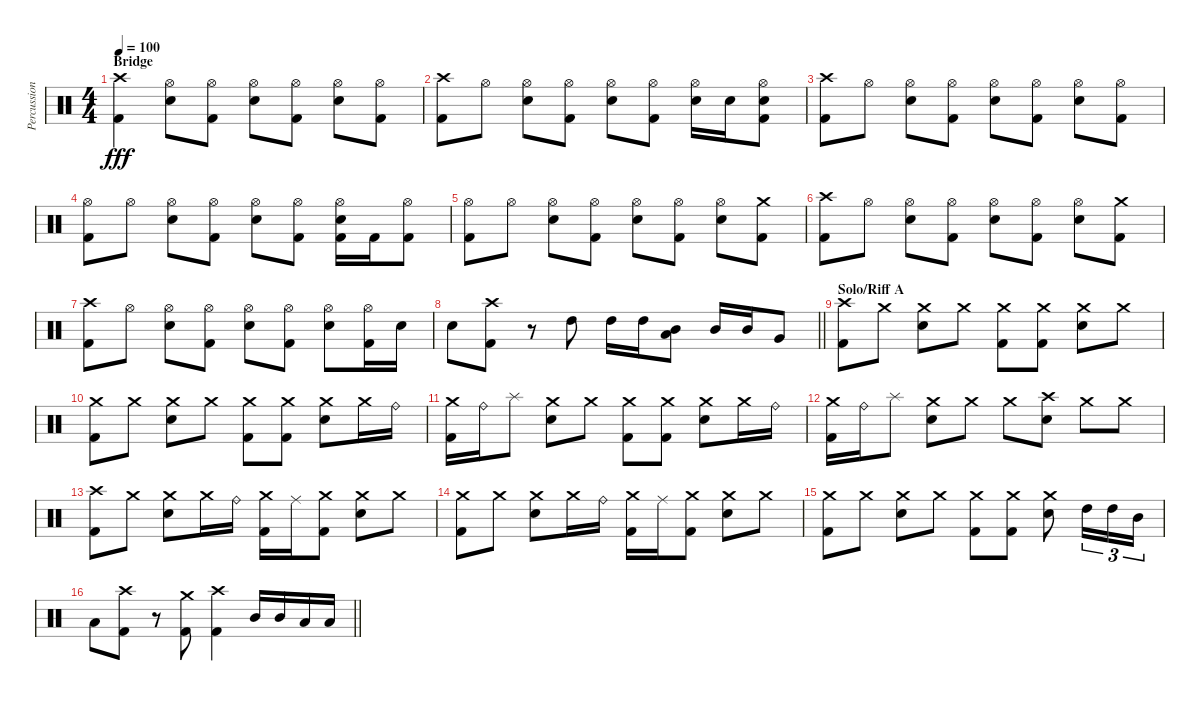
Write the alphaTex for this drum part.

\track ("Percussion" "Percussion") {instrument percussion}
\staff {score}
\articulation defaults
\ts (4 4)
\section ("" "Bridge")
\tempo 100
\clef neutral
\ks c
("Crash high (hit)" "Kick (hit) 2").4{dy fff} ("Hi-Hat (open)" "Electric Snare (hit)").8 ("Hi-Hat (open)" "Kick (hit) 2").8 ("Hi-Hat (open)" "Electric Snare (hit)").8 ("Hi-Hat (open)" "Kick (hit) 2").8 ("Hi-Hat (open)" "Electric Snare (hit)").8 ("Hi-Hat (open)" "Kick (hit) 2").8 |
("Crash high (hit)" "Kick (hit) 2").8 "Hi-Hat (open)".8 ("Hi-Hat (open)" "Electric Snare (hit)").8 ("Hi-Hat (open)" "Kick (hit) 2").8 ("Hi-Hat (open)" "Electric Snare (hit)").8 ("Hi-Hat (open)" "Kick (hit) 2").8 ("Hi-Hat (open)" "Electric Snare (hit)").16 "Electric Snare (hit)".16 ("Hi-Hat (open)" "Electric Snare (hit)" "Kick (hit) 2").8 |
("Crash high (hit)" "Kick (hit) 2").8 "Hi-Hat (open)".8 ("Hi-Hat (open)" "Electric Snare (hit)").8 ("Hi-Hat (open)" "Kick (hit) 2").8 ("Hi-Hat (open)" "Electric Snare (hit)").8 ("Hi-Hat (open)" "Kick (hit) 2").8 ("Hi-Hat (open)" "Electric Snare (hit)").8 ("Hi-Hat (open)" "Kick (hit) 2").8 |
("Hi-Hat (open)" "Kick (hit) 2").8 "Hi-Hat (open)".8 ("Hi-Hat (open)" "Electric Snare (hit)").8 ("Hi-Hat (open)" "Kick (hit) 2").8 ("Hi-Hat (open)" "Electric Snare (hit)").8 ("Hi-Hat (open)" "Kick (hit) 2").8 ("Hi-Hat (open)" "Electric Snare (hit)" "Kick (hit) 2").16 "Kick (hit) 2".16 ("Hi-Hat (open)" "Kick (hit) 2").8 |
("Hi-Hat (open)" "Kick (hit) 2").8 "Hi-Hat (open)".8 ("Hi-Hat (open)" "Electric Snare (hit)").8 ("Hi-Hat (open)" "Kick (hit) 2").8 ("Hi-Hat (open)" "Electric Snare (hit)").8 ("Hi-Hat (open)" "Kick (hit) 2").8 ("Hi-Hat (open)" "Electric Snare (hit)").8 ("Crash medium (hit)" "Kick (hit) 2").8 |
("Crash high (hit)" "Kick (hit) 2").8 "Hi-Hat (open)".8 ("Hi-Hat (open)" "Electric Snare (hit)").8 ("Hi-Hat (open)" "Kick (hit) 2").8 ("Hi-Hat (open)" "Electric Snare (hit)").8 ("Hi-Hat (open)" "Kick (hit) 2").8 ("Hi-Hat (open)" "Electric Snare (hit)").8 ("Crash medium (hit)" "Kick (hit) 2").8 |
("Crash high (hit)" "Kick (hit) 2").8 "Hi-Hat (open)".8 ("Hi-Hat (open)" "Electric Snare (hit)").8 ("Hi-Hat (open)" "Kick (hit) 2").8 ("Hi-Hat (open)" "Electric Snare (hit)").8 ("Hi-Hat (open)" "Kick (hit) 2").8 ("Hi-Hat (open)" "Electric Snare (hit)").8 ("Hi-Hat (open)" "Kick (hit) 2").16 "Electric Snare (hit)".16 |
\barLineRight lightlight "Electric Snare (hit)".8
("Crash high (hit)" "Kick (hit) 2").8 r.8 "High Tom (hit)".8 "High Tom (hit)".16 "High Tom (hit)".16 ("Mid Tom (hit)" "Low Tom (hit)").8 "Mid Tom (hit)".16 "Mid Tom (hit)".16 "Very Low Tom (hit)".8 |
\section ("" "Solo/Riff A")
("Crash high (hit)" "Kick (hit) 2").8 "Crash medium (hit)".8 ("Crash medium (hit)" "Electric Snare (hit)").8 "Crash medium (hit)".8 ("Crash medium (hit)" "Kick (hit) 2").8 ("Crash medium (hit)" "Kick (hit) 2").8 ("Crash medium (hit)" "Electric Snare (hit)").8 "Crash medium (hit)".8 |
("Crash medium (hit)" "Kick (hit) 2").8 "Crash medium (hit)".8 ("Crash medium (hit)" "Electric Snare (hit)").8 "Crash medium (hit)".8 ("Crash medium (hit)" "Kick (hit) 2").8 ("Crash medium (hit)" "Kick (hit) 2").8 ("Crash medium (hit)" "Electric Snare (hit)").8 "Crash medium (hit)".16 "Ride (bell)".16 |
("Crash medium (hit)" "Kick (hit) 2").16 "Ride (bell)".16 "Splash (hit)".8 ("Crash medium (hit)" "Electric Snare (hit)").8 "Crash medium (hit)".8 ("Crash medium (hit)" "Kick (hit) 2").8 ("Crash medium (hit)" "Kick (hit) 2").8 ("Crash medium (hit)" "Electric Snare (hit)").8 "Crash medium (hit)".16 "Ride (bell)".16 |
("Crash medium (hit)" "Kick (hit) 2").16 "Ride (bell)".16 "Splash (hit)".8 ("Crash medium (hit)" "Electric Snare (hit)").8 "Crash medium (hit)".8 "Crash medium (hit)".8 ("Crash high (hit)" "Electric Snare (hit)").8 "Crash medium (hit)".8 "Crash medium (hit)".8 |
("Crash high (hit)" "Kick (hit) 2").8 "Crash medium (hit)".8 ("Crash medium (hit)" "Electric Snare (hit)").8 "Crash medium (hit)".16 "Ride (bell)".16 ("Crash medium (hit)" "Kick (hit) 2").16 "Ride (middle)".16 ("Crash medium (hit)" "Kick (hit) 2").8 ("Crash medium (hit)" "Electric Snare (hit)").8 "Crash medium (hit)".8 |
("Crash medium (hit)" "Kick (hit) 2").8 "Crash medium (hit)".8 ("Crash medium (hit)" "Electric Snare (hit)").8 "Crash medium (hit)".16 "Ride (bell)".16 ("Crash medium (hit)" "Kick (hit) 2").16 "Ride (middle)".16 ("Crash medium (hit)" "Kick (hit) 2").8 ("Crash medium (hit)" "Electric Snare (hit)").8 "Crash medium (hit)".8 |
("Crash medium (hit)" "Kick (hit) 2").8 "Crash medium (hit)".8 ("Crash medium (hit)" "Electric Snare (hit)").8 "Crash medium (hit)".8 ("Crash medium (hit)" "Kick (hit) 2").8 ("Crash medium (hit)" "Kick (hit) 2").8 ("Crash medium (hit)" "Electric Snare (hit)").8 "High Tom (hit)".16{tu (3 2)} "High Tom (hit)".16{tu (3 2)} "Mid Tom (hit)".16{tu (3 2)} |
\barLineRight lightlight "Low Tom (hit)".8
("Crash high (hit)" "Kick (hit) 2").8 r.8 ("Crash medium (hit)" "Kick (hit) 2").8 ("Crash high (hit)" "Kick (hit) 2").4 "Mid Tom (hit)".16 "Mid Tom (hit)".16 "Low Tom (hit)".16 "Low Tom (hit)".16
